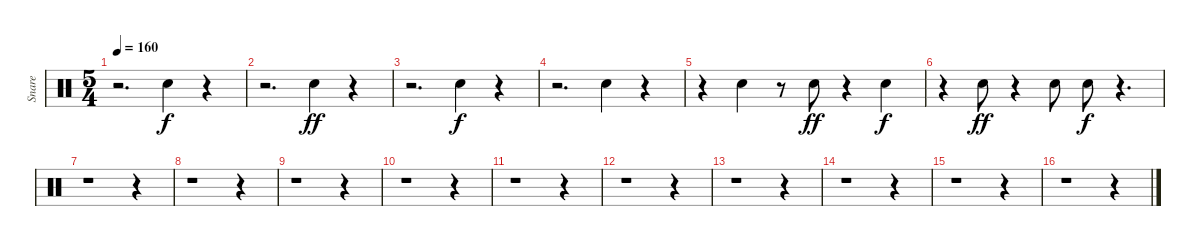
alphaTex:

\track ("Snare" "Snare") {instrument percussion}
\staff {score}
\articulation defaults
\ts (5 4)
\tempo 160
\clef neutral
\ks c
r.2{d dy ff} "Electric Snare (hit)".4{dy f} r.4 |
r.2{d} "Electric Snare (hit)".4{dy ff} r.4 |
r.2{d} "Electric Snare (hit)".4{dy f} r.4 |
r.2{d} "Electric Snare (hit)".4 r.4 |
r.4 "Snare (hit) 2".4 r.8 "Electric Snare (hit)".8{dy ff} r.4 "Snare (hit) 2".4{dy f} |
r.4 "Electric Snare (hit)".8{dy ff} r.4 "Electric Snare (hit)".8 "Electric Snare (hit)".8{dy f} r.4{d} |
r.1 r.4 |
r.1 r.4 |
r.1 r.4 |
r.1 r.4 |
r.1 r.4 |
r.1 r.4 |
r.1 r.4 |
r.1 r.4 |
r.1 r.4 |
r.1 r.4
